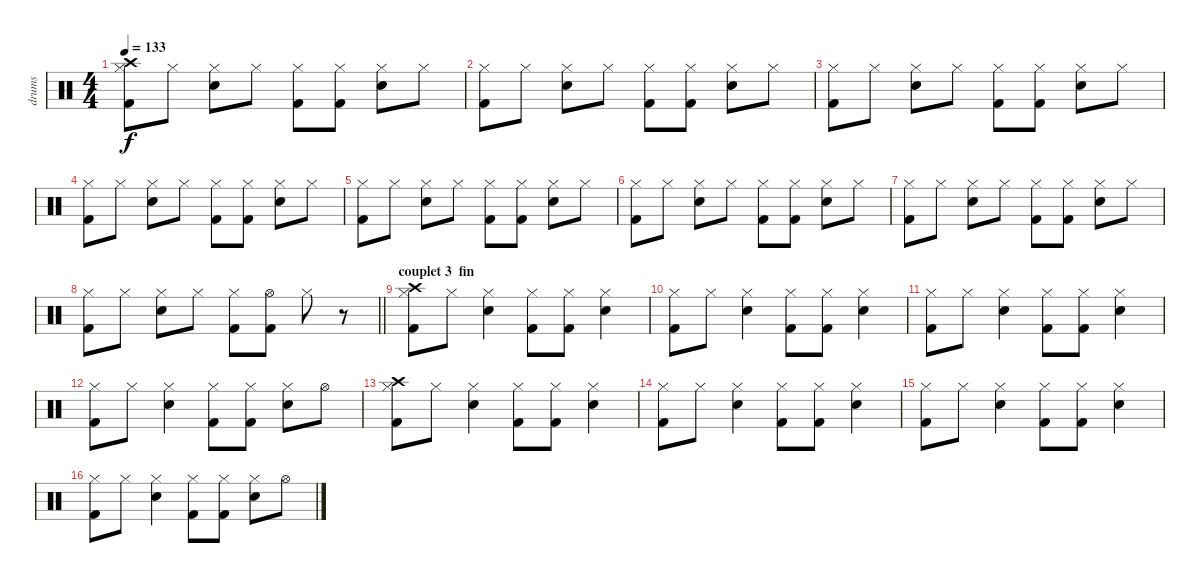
\track ("drums" "drums") {instrument percussion}
\staff {score}
\articulation defaults
\ts (4 4)
\tempo 133
\clef neutral
\ks c
("Crash high (hit)" "Hi-Hat (closed)" "Kick (hit) 2").8{dy f} "Hi-Hat (closed)".8 ("Hi-Hat (closed)" "Snare (hit) 2").8 "Hi-Hat (closed)".8 ("Hi-Hat (closed)" "Kick (hit) 2").8 ("Hi-Hat (closed)" "Kick (hit) 2").8 ("Hi-Hat (closed)" "Snare (hit) 2").8 "Hi-Hat (closed)".8 |
("Hi-Hat (closed)" "Kick (hit) 2").8 "Hi-Hat (closed)".8 ("Hi-Hat (closed)" "Snare (hit) 2").8 "Hi-Hat (closed)".8 ("Hi-Hat (closed)" "Kick (hit) 2").8 ("Hi-Hat (closed)" "Kick (hit) 2").8 ("Hi-Hat (closed)" "Snare (hit) 2").8 "Hi-Hat (closed)".8 |
("Hi-Hat (closed)" "Kick (hit) 2").8 "Hi-Hat (closed)".8 ("Hi-Hat (closed)" "Snare (hit) 2").8 "Hi-Hat (closed)".8 ("Hi-Hat (closed)" "Kick (hit) 2").8 ("Hi-Hat (closed)" "Kick (hit) 2").8 ("Hi-Hat (closed)" "Snare (hit) 2").8 "Hi-Hat (closed)".8 |
("Hi-Hat (closed)" "Kick (hit) 2").8 "Hi-Hat (closed)".8 ("Hi-Hat (closed)" "Snare (hit) 2").8 "Hi-Hat (closed)".8 ("Hi-Hat (closed)" "Kick (hit) 2").8 ("Hi-Hat (closed)" "Kick (hit) 2").8 ("Hi-Hat (closed)" "Snare (hit) 2").8 "Hi-Hat (closed)".8 |
("Hi-Hat (closed)" "Kick (hit) 2").8 "Hi-Hat (closed)".8 ("Hi-Hat (closed)" "Snare (hit) 2").8 "Hi-Hat (closed)".8 ("Hi-Hat (closed)" "Kick (hit) 2").8 ("Hi-Hat (closed)" "Kick (hit) 2").8 ("Hi-Hat (closed)" "Snare (hit) 2").8 "Hi-Hat (closed)".8 |
("Hi-Hat (closed)" "Kick (hit) 2").8 "Hi-Hat (closed)".8 ("Hi-Hat (closed)" "Snare (hit) 2").8 "Hi-Hat (closed)".8 ("Hi-Hat (closed)" "Kick (hit) 2").8 ("Hi-Hat (closed)" "Kick (hit) 2").8 ("Hi-Hat (closed)" "Snare (hit) 2").8 "Hi-Hat (closed)".8 |
("Hi-Hat (closed)" "Kick (hit) 2").8 "Hi-Hat (closed)".8 ("Hi-Hat (closed)" "Snare (hit) 2").8 "Hi-Hat (closed)".8 ("Hi-Hat (closed)" "Kick (hit) 2").8 ("Hi-Hat (closed)" "Kick (hit) 2").8 ("Hi-Hat (closed)" "Snare (hit) 2").8 "Hi-Hat (closed)".8 |
\barLineRight lightlight
("Hi-Hat (closed)" "Kick (hit) 2").8 "Hi-Hat (closed)".8 ("Hi-Hat (closed)" "Snare (hit) 2").8 "Hi-Hat (closed)".8 ("Hi-Hat (closed)" "Kick (hit) 2").8 ("Hi-Hat (open)" "Kick (hit) 2").8 "Hi-Hat (closed)".8 r.8 |
\section ("" "couplet 3  fin")
("Crash high (hit)" "Hi-Hat (closed)" "Kick (hit) 2").8 "Hi-Hat (closed)".8 ("Hi-Hat (closed)" "Snare (hit) 2").4 ("Hi-Hat (closed)" "Kick (hit) 2").8 ("Hi-Hat (closed)" "Kick (hit) 2").8 ("Hi-Hat (closed)" "Snare (hit) 2").4 |
("Hi-Hat (closed)" "Kick (hit) 2").8 "Hi-Hat (closed)".8 ("Hi-Hat (closed)" "Snare (hit) 2").4 ("Hi-Hat (closed)" "Kick (hit) 2").8 ("Hi-Hat (closed)" "Kick (hit) 2").8 ("Hi-Hat (closed)" "Snare (hit) 2").4 |
("Hi-Hat (closed)" "Kick (hit) 2").8 "Hi-Hat (closed)".8 ("Hi-Hat (closed)" "Snare (hit) 2").4 ("Hi-Hat (closed)" "Kick (hit) 2").8 ("Hi-Hat (closed)" "Kick (hit) 2").8 ("Hi-Hat (closed)" "Snare (hit) 2").4 |
("Hi-Hat (closed)" "Kick (hit) 2").8 "Hi-Hat (closed)".8 ("Hi-Hat (closed)" "Snare (hit) 2").4 ("Hi-Hat (closed)" "Kick (hit) 2").8 ("Hi-Hat (closed)" "Kick (hit) 2").8 ("Hi-Hat (closed)" "Snare (hit) 2").8 "Hi-Hat (open)".8 |
("Crash high (hit)" "Hi-Hat (closed)" "Kick (hit) 2").8 "Hi-Hat (closed)".8 ("Hi-Hat (closed)" "Snare (hit) 2").4 ("Hi-Hat (closed)" "Kick (hit) 2").8 ("Hi-Hat (closed)" "Kick (hit) 2").8 ("Hi-Hat (closed)" "Snare (hit) 2").4 |
("Hi-Hat (closed)" "Kick (hit) 2").8 "Hi-Hat (closed)".8 ("Hi-Hat (closed)" "Snare (hit) 2").4 ("Hi-Hat (closed)" "Kick (hit) 2").8 ("Hi-Hat (closed)" "Kick (hit) 2").8 ("Hi-Hat (closed)" "Snare (hit) 2").4 |
("Hi-Hat (closed)" "Kick (hit) 2").8 "Hi-Hat (closed)".8 ("Hi-Hat (closed)" "Snare (hit) 2").4 ("Hi-Hat (closed)" "Kick (hit) 2").8 ("Hi-Hat (closed)" "Kick (hit) 2").8 ("Hi-Hat (closed)" "Snare (hit) 2").4 |
("Hi-Hat (closed)" "Kick (hit) 2").8 "Hi-Hat (closed)".8 ("Hi-Hat (closed)" "Snare (hit) 2").4 ("Hi-Hat (closed)" "Kick (hit) 2").8 ("Hi-Hat (closed)" "Kick (hit) 2").8 ("Hi-Hat (closed)" "Snare (hit) 2").8 "Hi-Hat (open)".8
